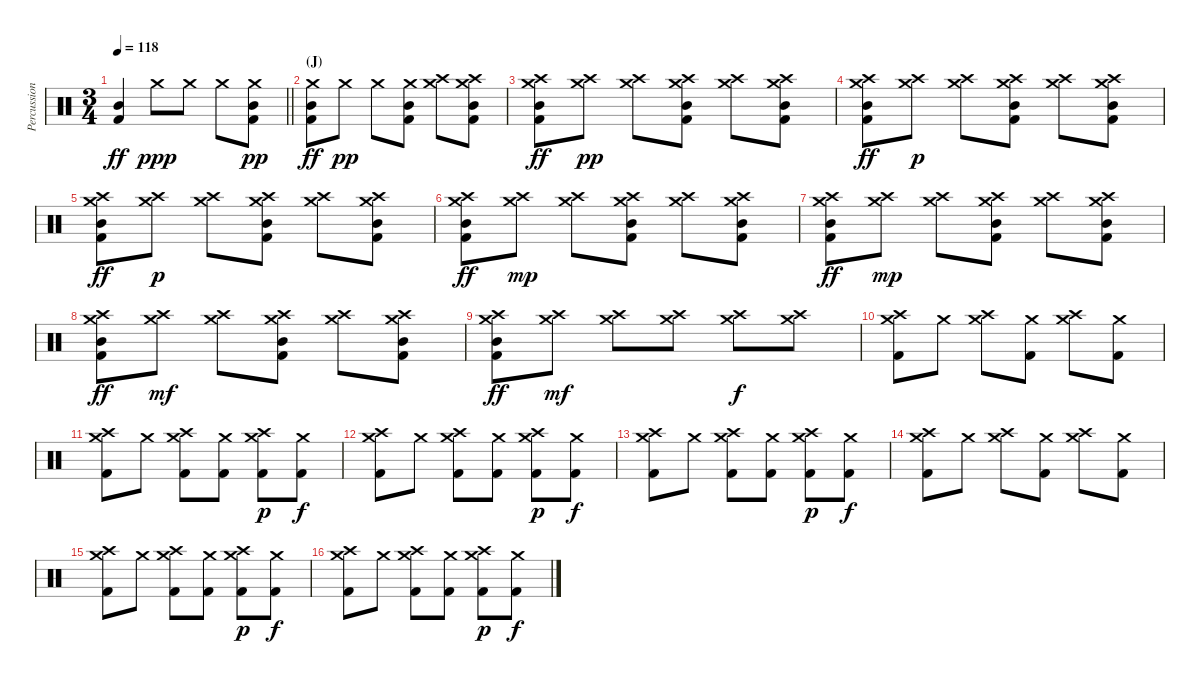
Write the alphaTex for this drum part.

\track ("Percussion" "Percussion") {instrument percussion}
\staff {score}
\articulation defaults
\ts (3 4)
\tempo 118
\clef neutral
\barLineRight lightlight
\ks c
("Mid Tom (hit)" "Kick (hit) 2").4{dy ff} "Crash medium (hit)".8{dy ppp} "Crash medium (hit)".8 "Crash medium (hit)".8 ("Crash medium (hit)" "Mid Tom (hit)" "Kick (hit) 2").8{dy pp} |
\section ("" "(J)")
("Crash medium (hit)" "Mid Tom (hit)" "Kick (hit) 2").8{dy ff} "Crash medium (hit)".8{dy pp} "Crash medium (hit)".8 ("Crash medium (hit)" "Mid Tom (hit)" "Kick (hit) 2").8 ("Crash medium (hit)" "Crash high (hit)").8 ("Crash medium (hit)" "Crash high (hit)" "Mid Tom (hit)" "Kick (hit) 2").8 |
("Crash medium (hit)" "Crash high (hit)" "Mid Tom (hit)" "Kick (hit) 2").8{dy ff} ("Crash medium (hit)" "Crash high (hit)").8{dy pp} ("Crash medium (hit)" "Crash high (hit)").8 ("Crash medium (hit)" "Crash high (hit)" "Mid Tom (hit)" "Kick (hit) 2").8 ("Crash medium (hit)" "Crash high (hit)").8 ("Crash medium (hit)" "Crash high (hit)" "Mid Tom (hit)" "Kick (hit) 2").8 |
("Crash medium (hit)" "Crash high (hit)" "Mid Tom (hit)" "Kick (hit) 2").8{dy ff} ("Crash medium (hit)" "Crash high (hit)").8{dy p} ("Crash medium (hit)" "Crash high (hit)").8 ("Crash medium (hit)" "Crash high (hit)" "Mid Tom (hit)" "Kick (hit) 2").8 ("Crash medium (hit)" "Crash high (hit)").8 ("Crash medium (hit)" "Crash high (hit)" "Mid Tom (hit)" "Kick (hit) 2").8 |
("Crash medium (hit)" "Crash high (hit)" "Mid Tom (hit)" "Kick (hit) 2").8{dy ff} ("Crash medium (hit)" "Crash high (hit)").8{dy p} ("Crash medium (hit)" "Crash high (hit)").8 ("Crash medium (hit)" "Crash high (hit)" "Mid Tom (hit)" "Kick (hit) 2").8 ("Crash medium (hit)" "Crash high (hit)").8 ("Crash medium (hit)" "Crash high (hit)" "Mid Tom (hit)" "Kick (hit) 2").8 |
("Crash medium (hit)" "Crash high (hit)" "Mid Tom (hit)" "Kick (hit) 2").8{dy ff} ("Crash medium (hit)" "Crash high (hit)").8{dy mp} ("Crash medium (hit)" "Crash high (hit)").8 ("Crash medium (hit)" "Crash high (hit)" "Mid Tom (hit)" "Kick (hit) 2").8 ("Crash medium (hit)" "Crash high (hit)").8 ("Crash medium (hit)" "Crash high (hit)" "Mid Tom (hit)" "Kick (hit) 2").8 |
("Crash medium (hit)" "Crash high (hit)" "Mid Tom (hit)" "Kick (hit) 2").8{dy ff volume 8} ("Crash medium (hit)" "Crash high (hit)").8{dy mp} ("Crash medium (hit)" "Crash high (hit)").8 ("Crash medium (hit)" "Crash high (hit)" "Mid Tom (hit)" "Kick (hit) 2").8 ("Crash medium (hit)" "Crash high (hit)").8 ("Crash medium (hit)" "Crash high (hit)" "Mid Tom (hit)" "Kick (hit) 2").8 |
("Crash medium (hit)" "Crash high (hit)" "Mid Tom (hit)" "Kick (hit) 2").8{dy ff} ("Crash medium (hit)" "Crash high (hit)").8{dy mf} ("Crash medium (hit)" "Crash high (hit)").8 ("Crash medium (hit)" "Crash high (hit)" "Mid Tom (hit)" "Kick (hit) 2").8 ("Crash medium (hit)" "Crash high (hit)").8 ("Crash medium (hit)" "Crash high (hit)" "Mid Tom (hit)" "Kick (hit) 2").8 |
("Crash medium (hit)" "Crash high (hit)" "Mid Tom (hit)" "Kick (hit) 2").8{dy ff} ("Crash medium (hit)" "Crash high (hit)").8{dy mf} ("Crash medium (hit)" "Crash high (hit)").8 ("Crash medium (hit)" "Crash high (hit)").8 ("Crash medium (hit)" "Crash high (hit)").8{dy f} ("Crash medium (hit)" "Crash high (hit)").8 |
("Crash medium (hit)" "Crash high (hit)" "Kick (hit) 2").8{volume 10} "Crash medium (hit)".8 ("Crash medium (hit)" "Crash high (hit)").8 ("Crash medium (hit)" "Kick (hit) 2").8 ("Crash medium (hit)" "Crash high (hit)").8 ("Crash medium (hit)" "Kick (hit) 2").8 |
("Crash medium (hit)" "Crash high (hit)" "Kick (hit) 2").8 "Crash medium (hit)".8 ("Crash medium (hit)" "Crash high (hit)" "Kick (hit) 2").8 ("Crash medium (hit)" "Kick (hit) 2").8 ("Crash medium (hit)" "Crash high (hit)" "Kick (hit) 2").8{dy p} ("Crash medium (hit)" "Kick (hit) 2").8{dy f} |
("Crash medium (hit)" "Crash high (hit)" "Kick (hit) 2").8 "Crash medium (hit)".8 ("Crash medium (hit)" "Crash high (hit)" "Kick (hit) 2").8 ("Crash medium (hit)" "Kick (hit) 2").8 ("Crash medium (hit)" "Crash high (hit)" "Kick (hit) 2").8{dy p} ("Crash medium (hit)" "Kick (hit) 2").8{dy f} |
("Crash medium (hit)" "Crash high (hit)" "Kick (hit) 2").8 "Crash medium (hit)".8 ("Crash medium (hit)" "Crash high (hit)" "Kick (hit) 2").8 ("Crash medium (hit)" "Kick (hit) 2").8 ("Crash medium (hit)" "Crash high (hit)" "Kick (hit) 2").8{dy p} ("Crash medium (hit)" "Kick (hit) 2").8{dy f} |
("Crash medium (hit)" "Crash high (hit)" "Kick (hit) 2").8 "Crash medium (hit)".8 ("Crash medium (hit)" "Crash high (hit)").8 ("Crash medium (hit)" "Kick (hit) 2").8 ("Crash medium (hit)" "Crash high (hit)").8 ("Crash medium (hit)" "Kick (hit) 2").8 |
("Crash medium (hit)" "Crash high (hit)" "Kick (hit) 2").8 "Crash medium (hit)".8 ("Crash medium (hit)" "Crash high (hit)" "Kick (hit) 2").8 ("Crash medium (hit)" "Kick (hit) 2").8 ("Crash medium (hit)" "Crash high (hit)" "Kick (hit) 2").8{dy p} ("Crash medium (hit)" "Kick (hit) 2").8{dy f} |
("Crash medium (hit)" "Crash high (hit)" "Kick (hit) 2").8 "Crash medium (hit)".8 ("Crash medium (hit)" "Crash high (hit)" "Kick (hit) 2").8 ("Crash medium (hit)" "Kick (hit) 2").8 ("Crash medium (hit)" "Crash high (hit)" "Kick (hit) 2").8{dy p} ("Crash medium (hit)" "Kick (hit) 2").8{dy f}
